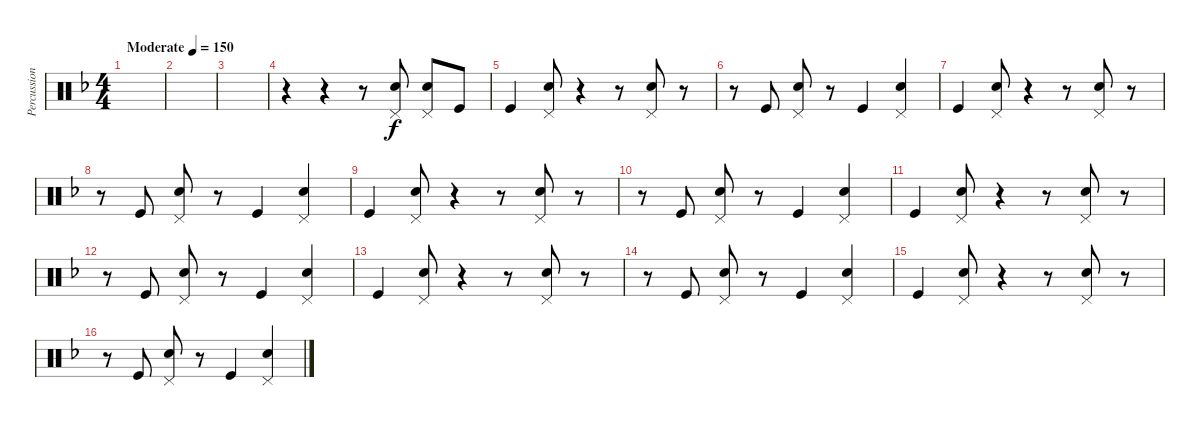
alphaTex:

\track ("Percussion" "Percussion") {instrument percussion}
\staff {score}
\articulation defaults
\ts (4 4)
\tempo (150 "Moderate")
\clef neutral
\ks f
|
|
|
r.4 r.4 r.8 ("Snare (hit) 2" "Pedal Hi-Hat (hit)").8 ("Snare (hit) 2" "Pedal Hi-Hat (hit)").8 "Kick (hit)".8 |
"Kick (hit)".4 ("Snare (hit) 2" "Pedal Hi-Hat (hit)").8 r.4 r.8 ("Snare (hit) 2" "Pedal Hi-Hat (hit)").8 r.8 |
r.8 "Kick (hit)".8 ("Snare (hit) 2" "Pedal Hi-Hat (hit)").8 r.8 "Kick (hit)".4 ("Snare (hit) 2" "Pedal Hi-Hat (hit)").4 |
"Kick (hit)".4 ("Snare (hit) 2" "Pedal Hi-Hat (hit)").8 r.4 r.8 ("Snare (hit) 2" "Pedal Hi-Hat (hit)").8 r.8 |
r.8 "Kick (hit)".8 ("Snare (hit) 2" "Pedal Hi-Hat (hit)").8 r.8 "Kick (hit)".4 ("Snare (hit) 2" "Pedal Hi-Hat (hit)").4 |
"Kick (hit)".4 ("Snare (hit) 2" "Pedal Hi-Hat (hit)").8 r.4 r.8 ("Snare (hit) 2" "Pedal Hi-Hat (hit)").8 r.8 |
r.8 "Kick (hit)".8 ("Snare (hit) 2" "Pedal Hi-Hat (hit)").8 r.8 "Kick (hit)".4 ("Snare (hit) 2" "Pedal Hi-Hat (hit)").4 |
"Kick (hit)".4 ("Snare (hit) 2" "Pedal Hi-Hat (hit)").8 r.4 r.8 ("Snare (hit) 2" "Pedal Hi-Hat (hit)").8 r.8 |
r.8 "Kick (hit)".8 ("Snare (hit) 2" "Pedal Hi-Hat (hit)").8 r.8 "Kick (hit)".4 ("Snare (hit) 2" "Pedal Hi-Hat (hit)").4 |
"Kick (hit)".4 ("Snare (hit) 2" "Pedal Hi-Hat (hit)").8 r.4 r.8 ("Snare (hit) 2" "Pedal Hi-Hat (hit)").8 r.8 |
r.8 "Kick (hit)".8 ("Snare (hit) 2" "Pedal Hi-Hat (hit)").8 r.8 "Kick (hit)".4 ("Snare (hit) 2" "Pedal Hi-Hat (hit)").4 |
"Kick (hit)".4 ("Snare (hit) 2" "Pedal Hi-Hat (hit)").8 r.4 r.8 ("Snare (hit) 2" "Pedal Hi-Hat (hit)").8 r.8 |
r.8 "Kick (hit)".8 ("Snare (hit) 2" "Pedal Hi-Hat (hit)").8 r.8 "Kick (hit)".4 ("Snare (hit) 2" "Pedal Hi-Hat (hit)").4
